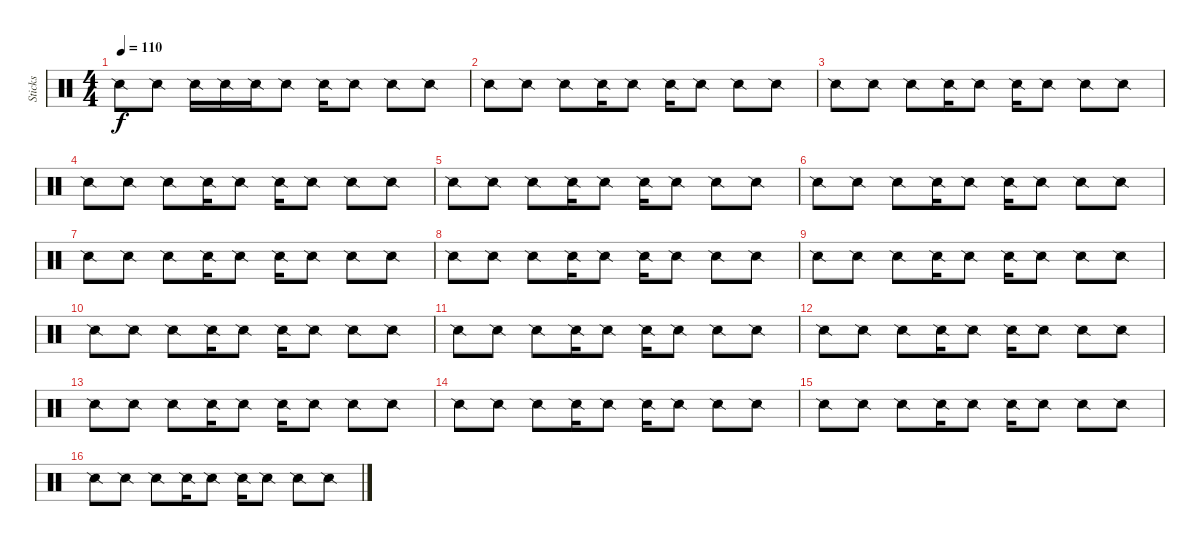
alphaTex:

\track ("Sticks" "Sticks") {instrument percussion}
\staff {score}
\articulation defaults
\ts (4 4)
\tempo 110
\clef neutral
\ks c "Snare (side stick) 2".8{dy f} "Snare (side stick) 2".8 "Snare (side stick) 2".16 "Snare (side stick) 2".16 "Snare (side stick) 2".16 "Snare (side stick) 2".8 "Snare (side stick) 2".16 "Snare (side stick) 2".8 "Snare (side stick) 2".8 "Snare (side stick) 2".8
|
"Snare (side stick) 2".8 "Snare (side stick) 2".8 "Snare (side stick) 2".8 "Snare (side stick) 2".16 "Snare (side stick) 2".8 "Snare (side stick) 2".16 "Snare (side stick) 2".8 "Snare (side stick) 2".8 "Snare (side stick) 2".8 |
"Snare (side stick) 2".8 "Snare (side stick) 2".8 "Snare (side stick) 2".8 "Snare (side stick) 2".16 "Snare (side stick) 2".8 "Snare (side stick) 2".16 "Snare (side stick) 2".8 "Snare (side stick) 2".8 "Snare (side stick) 2".8 |
"Snare (side stick) 2".8 "Snare (side stick) 2".8 "Snare (side stick) 2".8 "Snare (side stick) 2".16 "Snare (side stick) 2".8 "Snare (side stick) 2".16 "Snare (side stick) 2".8 "Snare (side stick) 2".8 "Snare (side stick) 2".8 |
"Snare (side stick) 2".8 "Snare (side stick) 2".8 "Snare (side stick) 2".8 "Snare (side stick) 2".16 "Snare (side stick) 2".8 "Snare (side stick) 2".16 "Snare (side stick) 2".8 "Snare (side stick) 2".8 "Snare (side stick) 2".8 |
"Snare (side stick) 2".8 "Snare (side stick) 2".8 "Snare (side stick) 2".8 "Snare (side stick) 2".16 "Snare (side stick) 2".8 "Snare (side stick) 2".16 "Snare (side stick) 2".8 "Snare (side stick) 2".8 "Snare (side stick) 2".8 |
"Snare (side stick) 2".8 "Snare (side stick) 2".8 "Snare (side stick) 2".8 "Snare (side stick) 2".16 "Snare (side stick) 2".8 "Snare (side stick) 2".16 "Snare (side stick) 2".8 "Snare (side stick) 2".8 "Snare (side stick) 2".8 |
"Snare (side stick) 2".8 "Snare (side stick) 2".8 "Snare (side stick) 2".8 "Snare (side stick) 2".16 "Snare (side stick) 2".8 "Snare (side stick) 2".16 "Snare (side stick) 2".8 "Snare (side stick) 2".8 "Snare (side stick) 2".8 |
"Snare (side stick) 2".8 "Snare (side stick) 2".8 "Snare (side stick) 2".8 "Snare (side stick) 2".16 "Snare (side stick) 2".8 "Snare (side stick) 2".16 "Snare (side stick) 2".8 "Snare (side stick) 2".8 "Snare (side stick) 2".8 |
"Snare (side stick) 2".8 "Snare (side stick) 2".8 "Snare (side stick) 2".8 "Snare (side stick) 2".16 "Snare (side stick) 2".8 "Snare (side stick) 2".16 "Snare (side stick) 2".8 "Snare (side stick) 2".8 "Snare (side stick) 2".8 |
"Snare (side stick) 2".8 "Snare (side stick) 2".8 "Snare (side stick) 2".8 "Snare (side stick) 2".16 "Snare (side stick) 2".8 "Snare (side stick) 2".16 "Snare (side stick) 2".8 "Snare (side stick) 2".8 "Snare (side stick) 2".8 |
"Snare (side stick) 2".8 "Snare (side stick) 2".8 "Snare (side stick) 2".8 "Snare (side stick) 2".16 "Snare (side stick) 2".8 "Snare (side stick) 2".16 "Snare (side stick) 2".8 "Snare (side stick) 2".8 "Snare (side stick) 2".8 |
"Snare (side stick) 2".8 "Snare (side stick) 2".8 "Snare (side stick) 2".8 "Snare (side stick) 2".16 "Snare (side stick) 2".8 "Snare (side stick) 2".16 "Snare (side stick) 2".8 "Snare (side stick) 2".8 "Snare (side stick) 2".8 |
"Snare (side stick) 2".8 "Snare (side stick) 2".8 "Snare (side stick) 2".8 "Snare (side stick) 2".16 "Snare (side stick) 2".8 "Snare (side stick) 2".16 "Snare (side stick) 2".8 "Snare (side stick) 2".8 "Snare (side stick) 2".8 |
"Snare (side stick) 2".8 "Snare (side stick) 2".8 "Snare (side stick) 2".8 "Snare (side stick) 2".16 "Snare (side stick) 2".8 "Snare (side stick) 2".16 "Snare (side stick) 2".8 "Snare (side stick) 2".8 "Snare (side stick) 2".8 |
"Snare (side stick) 2".8 "Snare (side stick) 2".8 "Snare (side stick) 2".8 "Snare (side stick) 2".16 "Snare (side stick) 2".8 "Snare (side stick) 2".16 "Snare (side stick) 2".8 "Snare (side stick) 2".8 "Snare (side stick) 2".8
